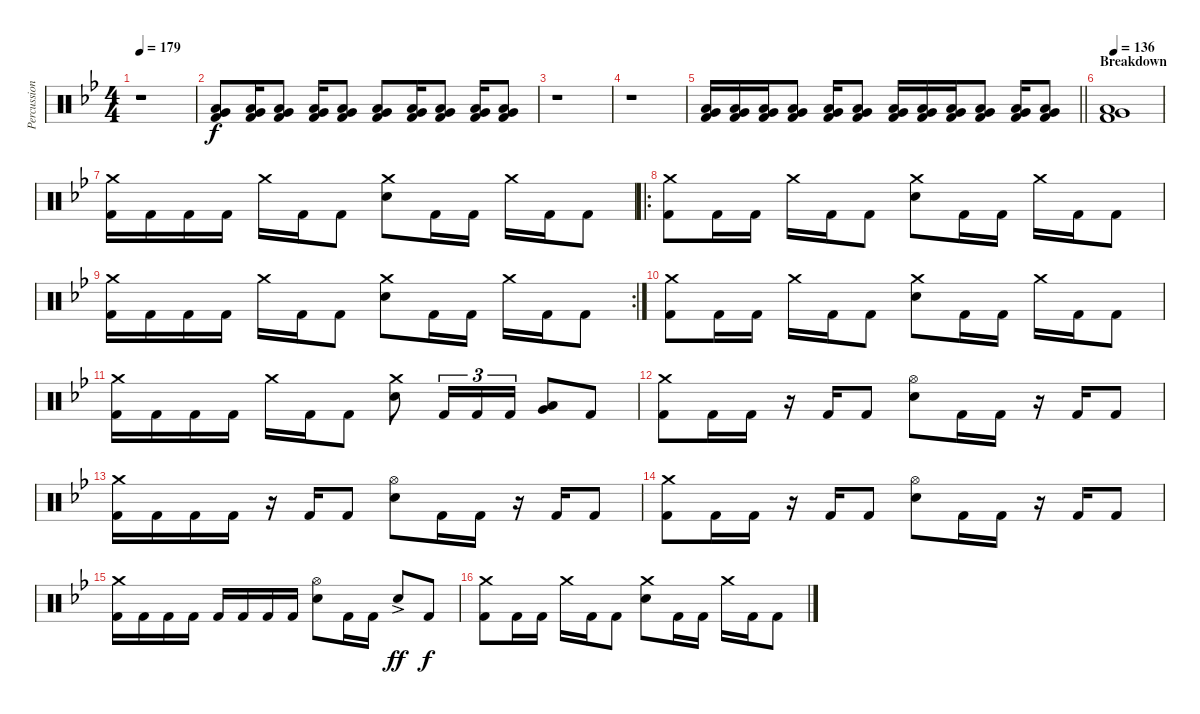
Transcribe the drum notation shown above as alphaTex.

\track ("Percussion" "Percussion") {instrument percussion}
\staff {score}
\articulation defaults
\ts (4 4)
\tempo 179
\clef neutral
\ks bb
r.1{dy f} |
("Very Low Tom (hit)" "Low Floor Tom (hit)" "Kick (hit) 2").8 ("Very Low Tom (hit)" "Low Floor Tom (hit)" "Kick (hit) 2").16 ("Very Low Tom (hit)" "Low Floor Tom (hit)" "Kick (hit) 2").8 ("Very Low Tom (hit)" "Low Floor Tom (hit)" "Kick (hit) 2").16 ("Very Low Tom (hit)" "Low Floor Tom (hit)" "Kick (hit) 2").8 ("Very Low Tom (hit)" "Low Floor Tom (hit)" "Kick (hit) 2").8 ("Very Low Tom (hit)" "Low Floor Tom (hit)" "Kick (hit) 2").16 ("Very Low Tom (hit)" "Low Floor Tom (hit)" "Kick (hit) 2").8 ("Very Low Tom (hit)" "Low Floor Tom (hit)" "Kick (hit) 2").16 ("Very Low Tom (hit)" "Low Floor Tom (hit)" "Kick (hit) 2").8 |
r.1 |
r.1 |
\barLineRight lightlight
("Very Low Tom (hit)" "Low Floor Tom (hit)" "Kick (hit) 2").16 ("Very Low Tom (hit)" "Low Floor Tom (hit)" "Kick (hit) 2").16 ("Very Low Tom (hit)" "Low Floor Tom (hit)" "Kick (hit) 2").16 ("Very Low Tom (hit)" "Low Floor Tom (hit)" "Kick (hit) 2").8 ("Very Low Tom (hit)" "Low Floor Tom (hit)" "Kick (hit) 2").16 ("Very Low Tom (hit)" "Low Floor Tom (hit)" "Kick (hit) 2").8 ("Very Low Tom (hit)" "Low Floor Tom (hit)" "Kick (hit) 2").16 ("Very Low Tom (hit)" "Low Floor Tom (hit)" "Kick (hit) 2").16 ("Very Low Tom (hit)" "Low Floor Tom (hit)" "Kick (hit) 2").16 ("Very Low Tom (hit)" "Low Floor Tom (hit)" "Kick (hit) 2").8 ("Very Low Tom (hit)" "Low Floor Tom (hit)" "Kick (hit) 2").16 ("Very Low Tom (hit)" "Low Floor Tom (hit)" "Kick (hit) 2").8 |
\section ("" "Breakdown")
\tempo 136
("Very Low Tom (hit)" "Low Floor Tom (hit)" "Kick (hit) 2").1 |
("Crash medium (hit)" "Kick (hit) 2").16 "Kick (hit) 2".16 "Kick (hit) 2".16 "Kick (hit) 2".16 "Crash medium (hit)".16 "Kick (hit) 2".16 "Kick (hit) 2".8 ("Crash medium (hit)" "Electric Snare (hit)").8 "Kick (hit) 2".16 "Kick (hit) 2".16 "Crash medium (hit)".16 "Kick (hit) 2".16 "Kick (hit) 2".8 |
\ro
("Crash medium (hit)" "Kick (hit) 2").8 "Kick (hit) 2".16 "Kick (hit) 2".16 "Crash medium (hit)".16 "Kick (hit) 2".16 "Kick (hit) 2".8 ("Crash medium (hit)" "Electric Snare (hit)").8 "Kick (hit) 2".16 "Kick (hit) 2".16 "Crash medium (hit)".16 "Kick (hit) 2".16 "Kick (hit) 2".8 |
\rc 2
("Crash medium (hit)" "Kick (hit) 2").16 "Kick (hit) 2".16 "Kick (hit) 2".16 "Kick (hit) 2".16 "Crash medium (hit)".16 "Kick (hit) 2".16 "Kick (hit) 2".8 ("Crash medium (hit)" "Electric Snare (hit)").8 "Kick (hit) 2".16 "Kick (hit) 2".16 "Crash medium (hit)".16 "Kick (hit) 2".16 "Kick (hit) 2".8 |
("Crash medium (hit)" "Kick (hit) 2").8 "Kick (hit) 2".16 "Kick (hit) 2".16 "Crash medium (hit)".16 "Kick (hit) 2".16 "Kick (hit) 2".8 ("Crash medium (hit)" "Electric Snare (hit)").8 "Kick (hit) 2".16 "Kick (hit) 2".16 "Crash medium (hit)".16 "Kick (hit) 2".16 "Kick (hit) 2".8 |
("Crash medium (hit)" "Kick (hit) 2").16 "Kick (hit) 2".16 "Kick (hit) 2".16 "Kick (hit) 2".16 "Crash medium (hit)".16 "Kick (hit) 2".16 "Kick (hit) 2".8 ("Crash medium (hit)" "Electric Snare (hit)").8 "Kick (hit) 2".16{tu (3 2)} "Kick (hit) 2".16{tu (3 2)} "Kick (hit) 2".16{tu (3 2)} ("Very Low Tom (hit)" "Low Floor Tom (hit)").8 "Kick (hit) 2".8 |
("Crash medium (hit)" "Kick (hit) 2").8 "Kick (hit) 2".16 "Kick (hit) 2".16 r.16 "Kick (hit) 2".16 "Kick (hit) 2".8 ("Hi-Hat (open)" "Electric Snare (hit)").8 "Kick (hit) 2".16 "Kick (hit) 2".16 r.16 "Kick (hit) 2".16 "Kick (hit) 2".8 |
("Crash medium (hit)" "Kick (hit) 2").16 "Kick (hit) 2".16 "Kick (hit) 2".16 "Kick (hit) 2".16 r.16 "Kick (hit) 2".16 "Kick (hit) 2".8 ("Hi-Hat (open)" "Electric Snare (hit)").8 "Kick (hit) 2".16 "Kick (hit) 2".16 r.16 "Kick (hit) 2".16 "Kick (hit) 2".8 |
("Crash medium (hit)" "Kick (hit) 2").8 "Kick (hit) 2".16 "Kick (hit) 2".16 r.16 "Kick (hit) 2".16 "Kick (hit) 2".8 ("Hi-Hat (open)" "Electric Snare (hit)").8 "Kick (hit) 2".16 "Kick (hit) 2".16 r.16 "Kick (hit) 2".16 "Kick (hit) 2".8 |
("Crash medium (hit)" "Kick (hit) 2").16 "Kick (hit) 2".16 "Kick (hit) 2".16 "Kick (hit) 2".16 "Kick (hit) 2".16 "Kick (hit) 2".16 "Kick (hit) 2".16 "Kick (hit) 2".16 ("Hi-Hat (open)" "Electric Snare (hit)").8 "Kick (hit) 2".16 "Kick (hit) 2".16 "Electric Snare (hit)"{ac}.8{dy ff} "Kick (hit) 2".8{dy f} |
("Crash medium (hit)" "Kick (hit) 2").8 "Kick (hit) 2".16 "Kick (hit) 2".16 "Crash medium (hit)".16 "Kick (hit) 2".16 "Kick (hit) 2".8 ("Crash medium (hit)" "Electric Snare (hit)").8 "Kick (hit) 2".16 "Kick (hit) 2".16 "Crash medium (hit)".16 "Kick (hit) 2".16 "Kick (hit) 2".8
